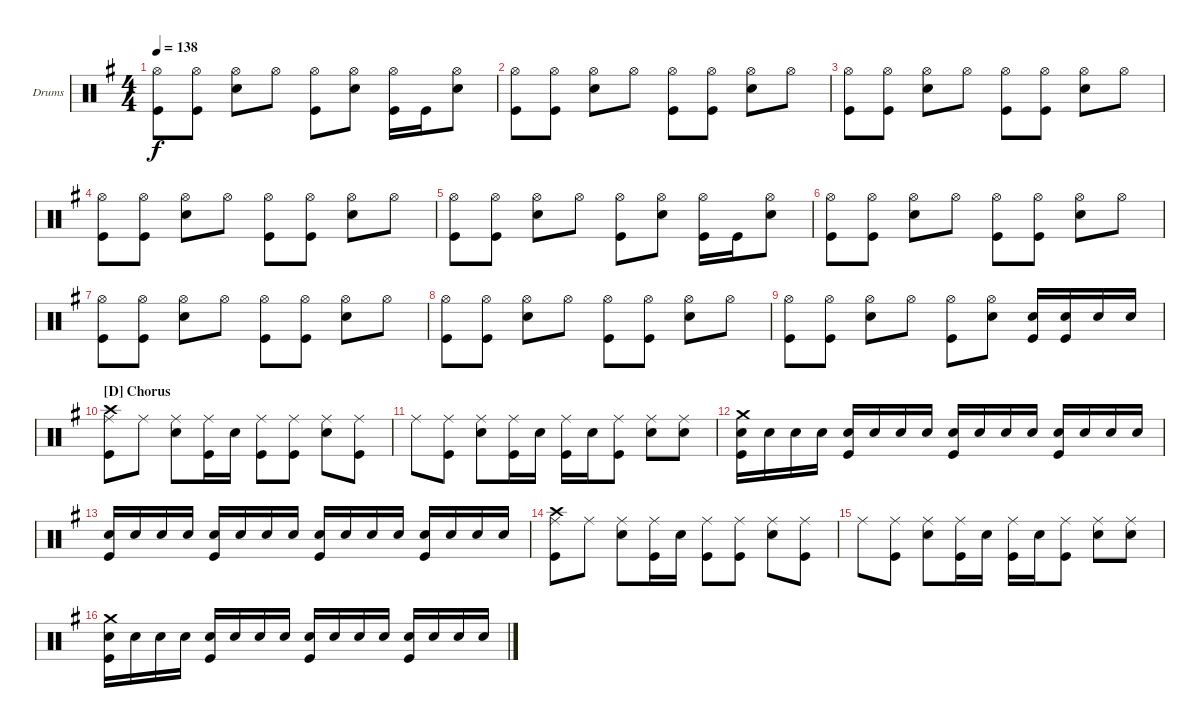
\defaultSystemsLayout 4
\bracketExtendMode groupsimilarinstruments
\firstSystemTrackNameOrientation horizontal
\otherSystemsTrackNameOrientation horizontal
\track ("Drumkit" "Drums") {instrument percussion}
\staff {score}
\articulation defaults
\ts (4 4)
\tempo 138
\clef neutral
\scale
1.04288
\ks g
("Hi-Hat (open)" "Kick (hit)").8{dy f} ("Hi-Hat (open)" "Kick (hit)").8 ("Hi-Hat (open)" "Snare (hit) 2").8 "Hi-Hat (open)".8 ("Hi-Hat (open)" "Kick (hit)").8 ("Hi-Hat (open)" "Snare (hit) 2").8 ("Hi-Hat (open)" "Kick (hit)").16 "Kick (hit)".16 ("Hi-Hat (open)" "Snare (hit) 2").8 |
\scale
0.957125 ("Hi-Hat (open)" "Kick (hit)").8 ("Hi-Hat (open)" "Kick (hit)").8 ("Hi-Hat (open)" "Snare (hit) 2").8 "Hi-Hat (open)".8 ("Hi-Hat (open)" "Kick (hit)").8 ("Hi-Hat (open)" "Kick (hit)").8 ("Hi-Hat (open)" "Snare (hit) 2").8 "Hi-Hat (open)".8 |
\scale
1.04288 ("Hi-Hat (open)" "Kick (hit)").8 ("Hi-Hat (open)" "Kick (hit)").8 ("Hi-Hat (open)" "Snare (hit) 2").8 "Hi-Hat (open)".8 ("Hi-Hat (open)" "Kick (hit)").8 ("Hi-Hat (open)" "Kick (hit)").8 ("Hi-Hat (open)" "Snare (hit) 2").8 "Hi-Hat (open)".8 |
\scale
0.957125 ("Hi-Hat (open)" "Kick (hit)").8 ("Hi-Hat (open)" "Kick (hit)").8 ("Hi-Hat (open)" "Snare (hit) 2").8 "Hi-Hat (open)".8 ("Hi-Hat (open)" "Kick (hit)").8 ("Hi-Hat (open)" "Kick (hit)").8 ("Hi-Hat (open)" "Snare (hit) 2").8 "Hi-Hat (open)".8 |
\scale
1.04288 ("Hi-Hat (open)" "Kick (hit)").8 ("Hi-Hat (open)" "Kick (hit)").8 ("Hi-Hat (open)" "Snare (hit) 2").8 "Hi-Hat (open)".8 ("Hi-Hat (open)" "Kick (hit)").8 ("Hi-Hat (open)" "Snare (hit) 2").8 ("Hi-Hat (open)" "Kick (hit)").16 "Kick (hit)".16 ("Hi-Hat (open)" "Snare (hit) 2").8 |
\scale
0.957125 ("Hi-Hat (open)" "Kick (hit)").8 ("Hi-Hat (open)" "Kick (hit)").8 ("Hi-Hat (open)" "Snare (hit) 2").8 "Hi-Hat (open)".8 ("Hi-Hat (open)" "Kick (hit)").8 ("Hi-Hat (open)" "Kick (hit)").8 ("Hi-Hat (open)" "Snare (hit) 2").8 "Hi-Hat (open)".8 |
\scale
1.04288 ("Hi-Hat (open)" "Kick (hit)").8 ("Hi-Hat (open)" "Kick (hit)").8 ("Hi-Hat (open)" "Snare (hit) 2").8 "Hi-Hat (open)".8 ("Hi-Hat (open)" "Kick (hit)").8 ("Hi-Hat (open)" "Kick (hit)").8 ("Hi-Hat (open)" "Snare (hit) 2").8 "Hi-Hat (open)".8 |
\scale
0.957125 ("Hi-Hat (open)" "Kick (hit)").8 ("Hi-Hat (open)" "Kick (hit)").8 ("Hi-Hat (open)" "Snare (hit) 2").8 "Hi-Hat (open)".8 ("Hi-Hat (open)" "Kick (hit)").8 ("Hi-Hat (open)" "Kick (hit)").8 ("Hi-Hat (open)" "Snare (hit) 2").8 "Hi-Hat (open)".8 |
\scale
1.04288 ("Hi-Hat (open)" "Kick (hit)").8 ("Hi-Hat (open)" "Kick (hit)").8 ("Hi-Hat (open)" "Snare (hit) 2").8 "Hi-Hat (open)".8 ("Hi-Hat (open)" "Kick (hit)").8 ("Hi-Hat (open)" "Snare (hit) 2").8 ("Snare (hit) 2" "Kick (hit)").16 ("Snare (hit) 2" "Kick (hit)").16 "Snare (hit) 2".16 "Snare (hit) 2".16 |
\section ("D" "Chorus")
\scale
0.957125 ("Ride (middle)" "Crash high (hit)" "Kick (hit)").8 "Ride (middle)".8 ("Ride (middle)" "Snare (hit) 2").8 ("Ride (middle)" "Kick (hit)").16 "Snare (hit) 2".16 ("Ride (middle)" "Kick (hit)").8 ("Ride (middle)" "Kick (hit)").8 ("Ride (middle)" "Snare (hit) 2").8 ("Ride (middle)" "Kick (hit)").8 |
\scale
1.04288 "Ride (middle)".8 ("Ride (middle)" "Kick (hit)").8 ("Ride (middle)" "Snare (hit) 2").8 ("Ride (middle)" "Kick (hit)").16 "Snare (hit) 2".16 ("Ride (middle)" "Kick (hit)").16 "Snare (hit) 2".16 ("Ride (middle)" "Kick (hit)").8 ("Ride (middle)" "Snare (hit) 2").8 ("Ride (middle)" "Snare (hit) 2").8 |
\scale
0.957125 ("Crash medium (hit)" "Snare (hit) 2" "Kick (hit)").16 "Snare (hit) 2".16 "Snare (hit) 2".16 "Snare (hit) 2".16 ("Snare (hit) 2" "Kick (hit)").16 "Snare (hit) 2".16 "Snare (hit) 2".16 "Snare (hit) 2".16 ("Snare (hit) 2" "Kick (hit)").16 "Snare (hit) 2".16 "Snare (hit) 2".16 "Snare (hit) 2".16 ("Snare (hit) 2" "Kick (hit)").16 "Snare (hit) 2".16 "Snare (hit) 2".16 "Snare (hit) 2".16 |
\scale
1.04288 ("Snare (hit) 2" "Kick (hit)").16 "Snare (hit) 2".16 "Snare (hit) 2".16 "Snare (hit) 2".16 ("Snare (hit) 2" "Kick (hit)").16 "Snare (hit) 2".16 "Snare (hit) 2".16 "Snare (hit) 2".16 ("Snare (hit) 2" "Kick (hit)").16 "Snare (hit) 2".16 "Snare (hit) 2".16 "Snare (hit) 2".16 ("Snare (hit) 2" "Kick (hit)").16 "Snare (hit) 2".16 "Snare (hit) 2".16 "Snare (hit) 2".16 |
\scale
0.957125 ("Ride (middle)" "Crash high (hit)" "Kick (hit)").8 "Ride (middle)".8 ("Ride (middle)" "Snare (hit) 2").8 ("Ride (middle)" "Kick (hit)").16 "Snare (hit) 2".16 ("Ride (middle)" "Kick (hit)").8 ("Ride (middle)" "Kick (hit)").8 ("Ride (middle)" "Snare (hit) 2").8 ("Ride (middle)" "Kick (hit)").8 |
\scale
1.04288 "Ride (middle)".8 ("Ride (middle)" "Kick (hit)").8 ("Ride (middle)" "Snare (hit) 2").8 ("Ride (middle)" "Kick (hit)").16 "Snare (hit) 2".16 ("Ride (middle)" "Kick (hit)").16 "Snare (hit) 2".16 ("Ride (middle)" "Kick (hit)").8 ("Ride (middle)" "Snare (hit) 2").8 ("Ride (middle)" "Snare (hit) 2").8 |
\scale
0.957125 ("Crash medium (hit)" "Snare (hit) 2" "Kick (hit)").16 "Snare (hit) 2".16 "Snare (hit) 2".16 "Snare (hit) 2".16 ("Snare (hit) 2" "Kick (hit)").16 "Snare (hit) 2".16 "Snare (hit) 2".16 "Snare (hit) 2".16 ("Snare (hit) 2" "Kick (hit)").16 "Snare (hit) 2".16 "Snare (hit) 2".16 "Snare (hit) 2".16 ("Snare (hit) 2" "Kick (hit)").16 "Snare (hit) 2".16 "Snare (hit) 2".16 "Snare (hit) 2".16
